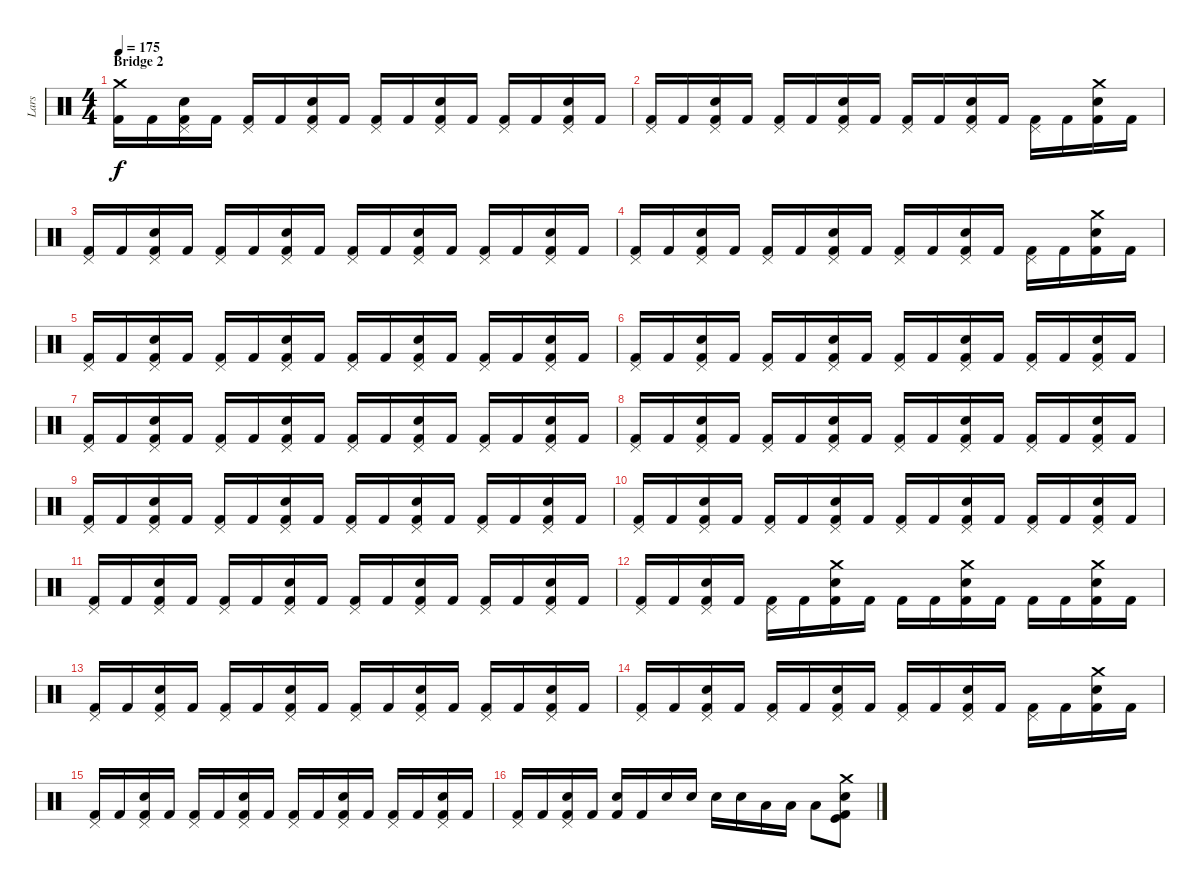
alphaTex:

\track ("Lars" "Lars") {instrument percussion}
\staff {score}
\articulation defaults
\ts (4 4)
\section ("" "Bridge 2")
\tempo 175
\clef neutral
\ks c
("Crash medium (hit)" "Kick (hit) 2").16{dy f} "Kick (hit) 2".16 ("Pedal Hi-Hat (hit)" "Electric Snare (hit)" "Kick (hit) 2").16 "Kick (hit) 2".16 ("Pedal Hi-Hat (hit)" "Kick (hit) 2").16 "Kick (hit) 2".16 ("Pedal Hi-Hat (hit)" "Electric Snare (hit)" "Kick (hit) 2").16 "Kick (hit) 2".16 ("Pedal Hi-Hat (hit)" "Kick (hit) 2").16 "Kick (hit) 2".16 ("Pedal Hi-Hat (hit)" "Electric Snare (hit)" "Kick (hit) 2").16 "Kick (hit) 2".16 ("Pedal Hi-Hat (hit)" "Kick (hit) 2").16 "Kick (hit) 2".16 ("Pedal Hi-Hat (hit)" "Electric Snare (hit)" "Kick (hit) 2").16 "Kick (hit) 2".16 |
("Pedal Hi-Hat (hit)" "Kick (hit) 2").16 "Kick (hit) 2".16 ("Pedal Hi-Hat (hit)" "Electric Snare (hit)" "Kick (hit) 2").16 "Kick (hit) 2".16 ("Pedal Hi-Hat (hit)" "Kick (hit) 2").16 "Kick (hit) 2".16 ("Pedal Hi-Hat (hit)" "Electric Snare (hit)" "Kick (hit) 2").16 "Kick (hit) 2".16 ("Pedal Hi-Hat (hit)" "Kick (hit) 2").16 "Kick (hit) 2".16 ("Pedal Hi-Hat (hit)" "Electric Snare (hit)" "Kick (hit) 2").16 "Kick (hit) 2".16 ("Pedal Hi-Hat (hit)" "Kick (hit) 2").16 "Kick (hit) 2".16 ("Crash medium (hit)" "Electric Snare (hit)" "Kick (hit) 2").16 "Kick (hit) 2".16 |
("Pedal Hi-Hat (hit)" "Kick (hit) 2").16 "Kick (hit) 2".16 ("Pedal Hi-Hat (hit)" "Electric Snare (hit)" "Kick (hit) 2").16 "Kick (hit) 2".16 ("Pedal Hi-Hat (hit)" "Kick (hit) 2").16 "Kick (hit) 2".16 ("Pedal Hi-Hat (hit)" "Electric Snare (hit)" "Kick (hit) 2").16 "Kick (hit) 2".16 ("Pedal Hi-Hat (hit)" "Kick (hit) 2").16 "Kick (hit) 2".16 ("Pedal Hi-Hat (hit)" "Electric Snare (hit)" "Kick (hit) 2").16 "Kick (hit) 2".16 ("Pedal Hi-Hat (hit)" "Kick (hit) 2").16 "Kick (hit) 2".16 ("Pedal Hi-Hat (hit)" "Electric Snare (hit)" "Kick (hit) 2").16 "Kick (hit) 2".16 |
("Pedal Hi-Hat (hit)" "Kick (hit) 2").16 "Kick (hit) 2".16 ("Pedal Hi-Hat (hit)" "Electric Snare (hit)" "Kick (hit) 2").16 "Kick (hit) 2".16 ("Pedal Hi-Hat (hit)" "Kick (hit) 2").16 "Kick (hit) 2".16 ("Pedal Hi-Hat (hit)" "Electric Snare (hit)" "Kick (hit) 2").16 "Kick (hit) 2".16 ("Pedal Hi-Hat (hit)" "Kick (hit) 2").16 "Kick (hit) 2".16 ("Pedal Hi-Hat (hit)" "Electric Snare (hit)" "Kick (hit) 2").16 "Kick (hit) 2".16 ("Pedal Hi-Hat (hit)" "Kick (hit) 2").16 "Kick (hit) 2".16 ("Crash medium (hit)" "Electric Snare (hit)" "Kick (hit) 2").16 "Kick (hit) 2".16 |
("Pedal Hi-Hat (hit)" "Kick (hit) 2").16 "Kick (hit) 2".16 ("Pedal Hi-Hat (hit)" "Electric Snare (hit)" "Kick (hit) 2").16 "Kick (hit) 2".16 ("Pedal Hi-Hat (hit)" "Kick (hit) 2").16 "Kick (hit) 2".16 ("Pedal Hi-Hat (hit)" "Electric Snare (hit)" "Kick (hit) 2").16 "Kick (hit) 2".16 ("Pedal Hi-Hat (hit)" "Kick (hit) 2").16 "Kick (hit) 2".16 ("Pedal Hi-Hat (hit)" "Electric Snare (hit)" "Kick (hit) 2").16 "Kick (hit) 2".16 ("Pedal Hi-Hat (hit)" "Kick (hit) 2").16 "Kick (hit) 2".16 ("Pedal Hi-Hat (hit)" "Electric Snare (hit)" "Kick (hit) 2").16 "Kick (hit) 2".16 |
("Pedal Hi-Hat (hit)" "Kick (hit) 2").16 "Kick (hit) 2".16 ("Pedal Hi-Hat (hit)" "Electric Snare (hit)" "Kick (hit) 2").16 "Kick (hit) 2".16 ("Pedal Hi-Hat (hit)" "Kick (hit) 2").16 "Kick (hit) 2".16 ("Pedal Hi-Hat (hit)" "Electric Snare (hit)" "Kick (hit) 2").16 "Kick (hit) 2".16 ("Pedal Hi-Hat (hit)" "Kick (hit) 2").16 "Kick (hit) 2".16 ("Pedal Hi-Hat (hit)" "Electric Snare (hit)" "Kick (hit) 2").16 "Kick (hit) 2".16 ("Pedal Hi-Hat (hit)" "Kick (hit) 2").16 "Kick (hit) 2".16 ("Pedal Hi-Hat (hit)" "Electric Snare (hit)" "Kick (hit) 2").16 "Kick (hit) 2".16 |
("Pedal Hi-Hat (hit)" "Kick (hit) 2").16 "Kick (hit) 2".16 ("Pedal Hi-Hat (hit)" "Electric Snare (hit)" "Kick (hit) 2").16 "Kick (hit) 2".16 ("Pedal Hi-Hat (hit)" "Kick (hit) 2").16 "Kick (hit) 2".16 ("Pedal Hi-Hat (hit)" "Electric Snare (hit)" "Kick (hit) 2").16 "Kick (hit) 2".16 ("Pedal Hi-Hat (hit)" "Kick (hit) 2").16 "Kick (hit) 2".16 ("Pedal Hi-Hat (hit)" "Electric Snare (hit)" "Kick (hit) 2").16 "Kick (hit) 2".16 ("Pedal Hi-Hat (hit)" "Kick (hit) 2").16 "Kick (hit) 2".16 ("Pedal Hi-Hat (hit)" "Electric Snare (hit)" "Kick (hit) 2").16 "Kick (hit) 2".16 |
("Pedal Hi-Hat (hit)" "Kick (hit) 2").16 "Kick (hit) 2".16 ("Pedal Hi-Hat (hit)" "Electric Snare (hit)" "Kick (hit) 2").16 "Kick (hit) 2".16 ("Pedal Hi-Hat (hit)" "Kick (hit) 2").16 "Kick (hit) 2".16 ("Pedal Hi-Hat (hit)" "Electric Snare (hit)" "Kick (hit) 2").16 "Kick (hit) 2".16 ("Pedal Hi-Hat (hit)" "Kick (hit) 2").16 "Kick (hit) 2".16 ("Pedal Hi-Hat (hit)" "Electric Snare (hit)" "Kick (hit) 2").16 "Kick (hit) 2".16 ("Pedal Hi-Hat (hit)" "Kick (hit) 2").16 "Kick (hit) 2".16 ("Pedal Hi-Hat (hit)" "Electric Snare (hit)" "Kick (hit) 2").16 "Kick (hit) 2".16 |
("Pedal Hi-Hat (hit)" "Kick (hit) 2").16 "Kick (hit) 2".16 ("Pedal Hi-Hat (hit)" "Electric Snare (hit)" "Kick (hit) 2").16 "Kick (hit) 2".16 ("Pedal Hi-Hat (hit)" "Kick (hit) 2").16 "Kick (hit) 2".16 ("Pedal Hi-Hat (hit)" "Electric Snare (hit)" "Kick (hit) 2").16 "Kick (hit) 2".16 ("Pedal Hi-Hat (hit)" "Kick (hit) 2").16 "Kick (hit) 2".16 ("Pedal Hi-Hat (hit)" "Electric Snare (hit)" "Kick (hit) 2").16 "Kick (hit) 2".16 ("Pedal Hi-Hat (hit)" "Kick (hit) 2").16 "Kick (hit) 2".16 ("Pedal Hi-Hat (hit)" "Electric Snare (hit)" "Kick (hit) 2").16 "Kick (hit) 2".16 |
("Pedal Hi-Hat (hit)" "Kick (hit) 2").16 "Kick (hit) 2".16 ("Pedal Hi-Hat (hit)" "Electric Snare (hit)" "Kick (hit) 2").16 "Kick (hit) 2".16 ("Pedal Hi-Hat (hit)" "Kick (hit) 2").16 "Kick (hit) 2".16 ("Pedal Hi-Hat (hit)" "Electric Snare (hit)" "Kick (hit) 2").16 "Kick (hit) 2".16 ("Pedal Hi-Hat (hit)" "Kick (hit) 2").16 "Kick (hit) 2".16 ("Pedal Hi-Hat (hit)" "Electric Snare (hit)" "Kick (hit) 2").16 "Kick (hit) 2".16 ("Pedal Hi-Hat (hit)" "Kick (hit) 2").16 "Kick (hit) 2".16 ("Pedal Hi-Hat (hit)" "Electric Snare (hit)" "Kick (hit) 2").16 "Kick (hit) 2".16 |
("Pedal Hi-Hat (hit)" "Kick (hit) 2").16 "Kick (hit) 2".16 ("Pedal Hi-Hat (hit)" "Electric Snare (hit)" "Kick (hit) 2").16 "Kick (hit) 2".16 ("Pedal Hi-Hat (hit)" "Kick (hit) 2").16 "Kick (hit) 2".16 ("Pedal Hi-Hat (hit)" "Electric Snare (hit)" "Kick (hit) 2").16 "Kick (hit) 2".16 ("Pedal Hi-Hat (hit)" "Kick (hit) 2").16 "Kick (hit) 2".16 ("Pedal Hi-Hat (hit)" "Electric Snare (hit)" "Kick (hit) 2").16 "Kick (hit) 2".16 ("Pedal Hi-Hat (hit)" "Kick (hit) 2").16 "Kick (hit) 2".16 ("Pedal Hi-Hat (hit)" "Electric Snare (hit)" "Kick (hit) 2").16 "Kick (hit) 2".16 |
("Pedal Hi-Hat (hit)" "Kick (hit) 2").16 "Kick (hit) 2".16 ("Pedal Hi-Hat (hit)" "Electric Snare (hit)" "Kick (hit) 2").16 "Kick (hit) 2".16 ("Pedal Hi-Hat (hit)" "Kick (hit) 2").16 "Kick (hit) 2".16 ("Crash medium (hit)" "Electric Snare (hit)" "Kick (hit) 2").16 "Kick (hit) 2".16 "Kick (hit) 2".16 "Kick (hit) 2".16 ("Crash medium (hit)" "Electric Snare (hit)" "Kick (hit) 2").16 "Kick (hit) 2".16 "Kick (hit) 2".16 "Kick (hit) 2".16 ("Crash medium (hit)" "Electric Snare (hit)" "Kick (hit) 2").16 "Kick (hit) 2".16 |
("Pedal Hi-Hat (hit)" "Kick (hit) 2").16 "Kick (hit) 2".16 ("Pedal Hi-Hat (hit)" "Electric Snare (hit)" "Kick (hit) 2").16 "Kick (hit) 2".16 ("Pedal Hi-Hat (hit)" "Kick (hit) 2").16 "Kick (hit) 2".16 ("Pedal Hi-Hat (hit)" "Electric Snare (hit)" "Kick (hit) 2").16 "Kick (hit) 2".16 ("Pedal Hi-Hat (hit)" "Kick (hit) 2").16 "Kick (hit) 2".16 ("Pedal Hi-Hat (hit)" "Electric Snare (hit)" "Kick (hit) 2").16 "Kick (hit) 2".16 ("Pedal Hi-Hat (hit)" "Kick (hit) 2").16 "Kick (hit) 2".16 ("Pedal Hi-Hat (hit)" "Electric Snare (hit)" "Kick (hit) 2").16 "Kick (hit) 2".16 |
("Pedal Hi-Hat (hit)" "Kick (hit) 2").16 "Kick (hit) 2".16 ("Pedal Hi-Hat (hit)" "Electric Snare (hit)" "Kick (hit) 2").16 "Kick (hit) 2".16 ("Pedal Hi-Hat (hit)" "Kick (hit) 2").16 "Kick (hit) 2".16 ("Pedal Hi-Hat (hit)" "Electric Snare (hit)" "Kick (hit) 2").16 "Kick (hit) 2".16 ("Pedal Hi-Hat (hit)" "Kick (hit) 2").16 "Kick (hit) 2".16 ("Pedal Hi-Hat (hit)" "Electric Snare (hit)" "Kick (hit) 2").16 "Kick (hit) 2".16 ("Pedal Hi-Hat (hit)" "Kick (hit) 2").16 "Kick (hit) 2".16 ("Crash medium (hit)" "Electric Snare (hit)" "Kick (hit) 2").16 "Kick (hit) 2".16 |
("Pedal Hi-Hat (hit)" "Kick (hit) 2").16 "Kick (hit) 2".16 ("Pedal Hi-Hat (hit)" "Electric Snare (hit)" "Kick (hit) 2").16 "Kick (hit) 2".16 ("Pedal Hi-Hat (hit)" "Kick (hit) 2").16 "Kick (hit) 2".16 ("Pedal Hi-Hat (hit)" "Electric Snare (hit)" "Kick (hit) 2").16 "Kick (hit) 2".16 ("Pedal Hi-Hat (hit)" "Kick (hit) 2").16 "Kick (hit) 2".16 ("Pedal Hi-Hat (hit)" "Electric Snare (hit)" "Kick (hit) 2").16 "Kick (hit) 2".16 ("Pedal Hi-Hat (hit)" "Kick (hit) 2").16 "Kick (hit) 2".16 ("Pedal Hi-Hat (hit)" "Electric Snare (hit)" "Kick (hit) 2").16 "Kick (hit) 2".16 |
("Pedal Hi-Hat (hit)" "Kick (hit) 2").16 "Kick (hit) 2".16 ("Pedal Hi-Hat (hit)" "Electric Snare (hit)" "Kick (hit) 2").16 "Kick (hit) 2".16 ("Electric Snare (hit)" "Kick (hit) 2").16 "Kick (hit) 2".16 "Electric Snare (hit)".16 "Electric Snare (hit)".16 "Electric Snare (hit)".16 "Electric Snare (hit)".16 "Low Tom (hit)".16 "Low Tom (hit)".16 "Low Tom (hit)".8 ("Crash medium (hit)" "Electric Snare (hit)" "Kick (hit) 2" "Kick (hit)").8
